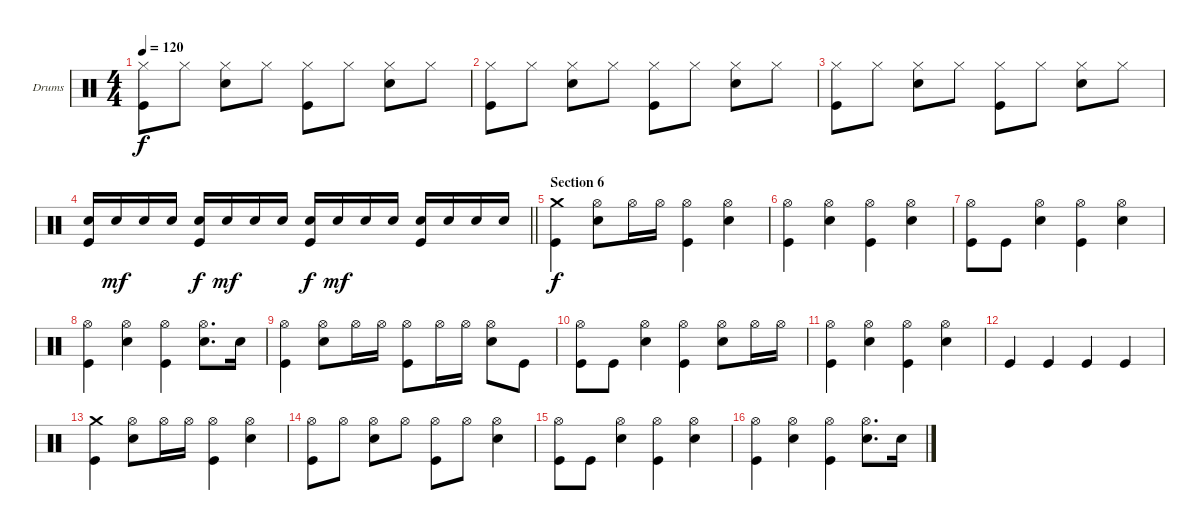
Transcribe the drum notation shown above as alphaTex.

\defaultSystemsLayout 4
\bracketExtendMode groupsimilarinstruments
\firstSystemTrackNameOrientation horizontal
\otherSystemsTrackNameOrientation horizontal
\track ("Drums" "Drums") {instrument percussion}
\staff {score}
\articulation defaults
\ts (4 4)
\tempo 120
\clef neutral
\ks c
("Kick (hit)" "Hi-Hat (closed)").8{dy f} "Hi-Hat (closed)".8 ("Snare (hit) 2" "Hi-Hat (closed)").8 "Hi-Hat (closed)".8 ("Hi-Hat (closed)" "Kick (hit)").8 "Hi-Hat (closed)".8 ("Hi-Hat (closed)" "Snare (hit) 2").8 "Hi-Hat (closed)".8 |
("Kick (hit)" "Hi-Hat (closed)").8 "Hi-Hat (closed)".8 ("Snare (hit) 2" "Hi-Hat (closed)").8 "Hi-Hat (closed)".8 ("Hi-Hat (closed)" "Kick (hit)").8 "Hi-Hat (closed)".8 ("Hi-Hat (closed)" "Snare (hit) 2").8 "Hi-Hat (closed)".8 |
("Kick (hit)" "Hi-Hat (closed)").8 "Hi-Hat (closed)".8 ("Snare (hit) 2" "Hi-Hat (closed)").8 "Hi-Hat (closed)".8 ("Hi-Hat (closed)" "Kick (hit)").8 "Hi-Hat (closed)".8 ("Hi-Hat (closed)" "Snare (hit) 2").8 "Hi-Hat (closed)".8 |
\barLineRight lightlight
("Kick (hit)" "Snare (hit) 2").16 "Snare (hit) 2".16{dy mf} "Snare (hit) 2".16 "Snare (hit) 2".16 ("Kick (hit)" "Snare (hit) 2").16{dy f} "Snare (hit) 2".16{dy mf} "Snare (hit) 2".16 "Snare (hit) 2".16 ("Kick (hit)" "Snare (hit) 2").16{dy f} "Snare (hit) 2".16{dy mf} "Snare (hit) 2".16 "Snare (hit) 2".16 ("Kick (hit)" "Snare (hit) 2").16 "Snare (hit) 2".16 "Snare (hit) 2".16 "Snare (hit) 2".16 |
\section ("" "Section 6")
("Kick (hit)" "Crash medium (hit)").4{dy f} ("Hi-Hat (open)" "Snare (hit) 2").8 "Hi-Hat (open)".16 "Hi-Hat (open)".16 ("Kick (hit)" "Hi-Hat (open)").4 ("Hi-Hat (open)" "Snare (hit) 2").4 |
("Kick (hit)" "Hi-Hat (open)").4 ("Hi-Hat (open)" "Snare (hit) 2").4 ("Kick (hit)" "Hi-Hat (open)").4 ("Hi-Hat (open)" "Snare (hit) 2").4 |
("Kick (hit)" "Hi-Hat (open)").8 "Kick (hit)".8 ("Hi-Hat (open)" "Snare (hit) 2").4 ("Kick (hit)" "Hi-Hat (open)").4 ("Hi-Hat (open)" "Snare (hit) 2").4 |
("Kick (hit)" "Hi-Hat (open)").4 ("Hi-Hat (open)" "Snare (hit) 2").4 ("Kick (hit)" "Hi-Hat (open)").4 ("Hi-Hat (open)" "Snare (hit) 2").8{d} "Snare (hit) 2".16 |
("Kick (hit)" "Hi-Hat (open)").4 ("Hi-Hat (open)" "Snare (hit) 2").8 "Hi-Hat (open)".16 "Hi-Hat (open)".16 ("Kick (hit)" "Hi-Hat (open)").8 "Hi-Hat (open)".16 "Hi-Hat (open)".16 ("Hi-Hat (open)" "Snare (hit) 2").8 "Kick (hit)".8 |
("Kick (hit)" "Hi-Hat (open)").8 "Kick (hit)".8 ("Hi-Hat (open)" "Snare (hit) 2").4 ("Kick (hit)" "Hi-Hat (open)").4 ("Hi-Hat (open)" "Snare (hit) 2").8 "Hi-Hat (open)".16 "Hi-Hat (open)".16 |
("Kick (hit)" "Hi-Hat (open)").4 ("Hi-Hat (open)" "Snare (hit) 2").4 ("Kick (hit)" "Hi-Hat (open)").4 ("Hi-Hat (open)" "Snare (hit) 2").4 |
"Kick (hit)".4 "Kick (hit)".4 "Kick (hit)".4 "Kick (hit)".4 |
("Kick (hit)" "Crash medium (hit)").4 ("Hi-Hat (open)" "Snare (hit) 2").8 "Hi-Hat (open)".16 "Hi-Hat (open)".16 ("Kick (hit)" "Hi-Hat (open)").4 ("Hi-Hat (open)" "Snare (hit) 2").4 |
("Kick (hit)" "Hi-Hat (open)").8 "Hi-Hat (open)".8 ("Hi-Hat (open)" "Snare (hit) 2").8 "Hi-Hat (open)".8 ("Kick (hit)" "Hi-Hat (open)").8 "Hi-Hat (open)".8 ("Hi-Hat (open)" "Snare (hit) 2").4 |
("Kick (hit)" "Hi-Hat (open)").8 "Kick (hit)".8 ("Hi-Hat (open)" "Snare (hit) 2").4 ("Kick (hit)" "Hi-Hat (open)").4 ("Hi-Hat (open)" "Snare (hit) 2").4 |
("Kick (hit)" "Hi-Hat (open)").4 ("Hi-Hat (open)" "Snare (hit) 2").4 ("Kick (hit)" "Hi-Hat (open)").4 ("Hi-Hat (open)" "Snare (hit) 2").8{d} "Snare (hit) 2".16
